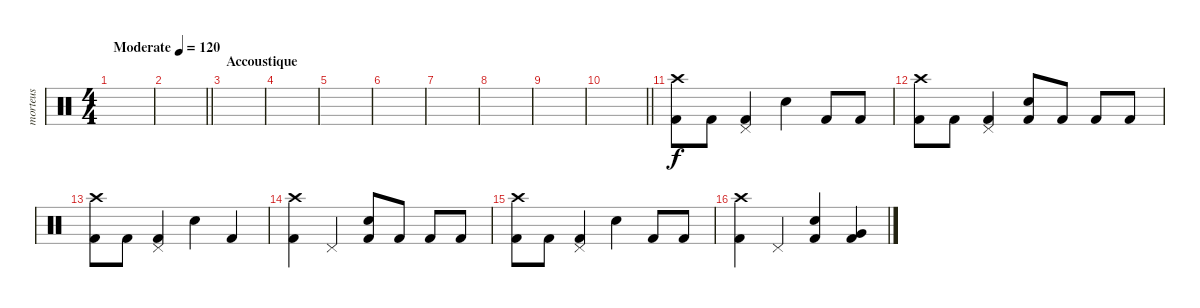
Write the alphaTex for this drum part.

\track ("morteus" "morteus") {instrument percussion}
\staff {score}
\articulation defaults
\ts (4 4)
\tempo (120 "Moderate")
\clef neutral
\ks c
|
\barLineRight lightlight
|
\section ("" "Accoustique")
|
|
|
|
|
|
|
\barLineRight lightlight
|
("Crash high (hit)" "Kick (hit) 2").8 "Kick (hit) 2".8 ("Pedal Hi-Hat (hit)" "Kick (hit) 2").4 "Electric Snare (hit)".4 "Kick (hit) 2".8 "Kick (hit) 2".8 |
("Crash high (hit)" "Kick (hit) 2").8 "Kick (hit) 2".8 ("Pedal Hi-Hat (hit)" "Kick (hit) 2").4 ("Electric Snare (hit)" "Kick (hit) 2").8 "Kick (hit) 2".8 "Kick (hit) 2".8 "Kick (hit) 2".8 |
("Crash high (hit)" "Kick (hit) 2").8 "Kick (hit) 2".8 ("Pedal Hi-Hat (hit)" "Kick (hit) 2").4 "Electric Snare (hit)".4 "Kick (hit) 2".4 |
("Crash high (hit)" "Kick (hit) 2").4 "Pedal Hi-Hat (hit)".4 ("Electric Snare (hit)" "Kick (hit) 2").8 "Kick (hit) 2".8 "Kick (hit) 2".8 "Kick (hit) 2".8 |
("Crash high (hit)" "Kick (hit) 2").8 "Kick (hit) 2".8 ("Pedal Hi-Hat (hit)" "Kick (hit) 2").4 "Electric Snare (hit)".4 "Kick (hit) 2".8 "Kick (hit) 2".8 |
("Crash high (hit)" "Kick (hit) 2").4 "Pedal Hi-Hat (hit)".4 ("Electric Snare (hit)" "Kick (hit) 2").4 ("Very Low Tom (hit)" "Kick (hit) 2").4
